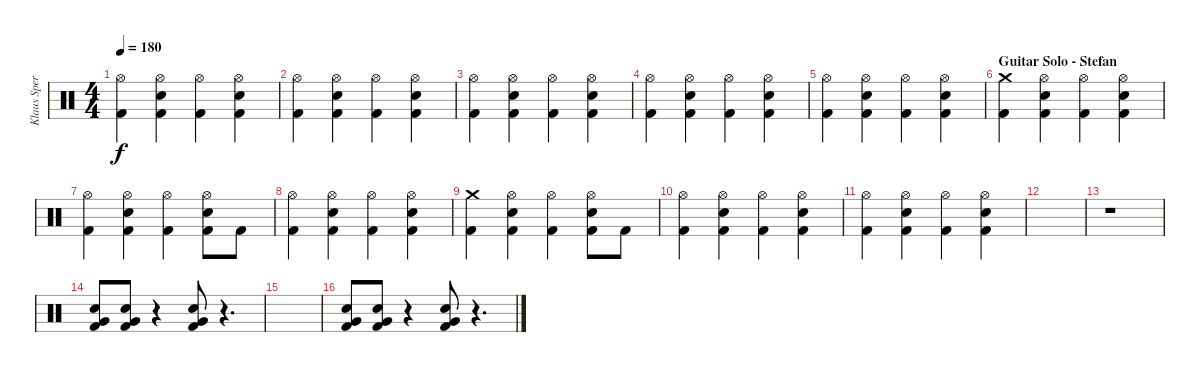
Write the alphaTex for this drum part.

\track ("Klaus Sperling Drums" "Klaus Sper") {instrument percussion}
\staff {score}
\articulation defaults
\ts (4 4)
\tempo 180
\clef neutral
\ks c
("Hi-Hat (open)" "Kick (hit) 2").4{dy f} ("Hi-Hat (open)" "Electric Snare (hit)" "Kick (hit) 2").4 ("Hi-Hat (open)" "Kick (hit) 2").4 ("Hi-Hat (open)" "Electric Snare (hit)" "Kick (hit) 2").4 |
("Hi-Hat (open)" "Kick (hit) 2").4 ("Hi-Hat (open)" "Electric Snare (hit)" "Kick (hit) 2").4 ("Hi-Hat (open)" "Kick (hit) 2").4 ("Hi-Hat (open)" "Electric Snare (hit)" "Kick (hit) 2").4 |
("Hi-Hat (open)" "Kick (hit) 2").4 ("Hi-Hat (open)" "Electric Snare (hit)" "Kick (hit) 2").4 ("Hi-Hat (open)" "Kick (hit) 2").4 ("Hi-Hat (open)" "Electric Snare (hit)" "Kick (hit) 2").4 |
("Hi-Hat (open)" "Kick (hit) 2").4 ("Hi-Hat (open)" "Electric Snare (hit)" "Kick (hit) 2").4 ("Hi-Hat (open)" "Kick (hit) 2").4 ("Hi-Hat (open)" "Electric Snare (hit)" "Kick (hit) 2").4 |
("Hi-Hat (open)" "Kick (hit) 2").4 ("Hi-Hat (open)" "Electric Snare (hit)" "Kick (hit) 2").4 ("Hi-Hat (open)" "Kick (hit) 2").4 ("Hi-Hat (open)" "Electric Snare (hit)" "Kick (hit) 2").4 |
\section ("" "Guitar Solo - Stefan")
("Crash medium (hit)" "Kick (hit) 2").4 ("Hi-Hat (open)" "Electric Snare (hit)" "Kick (hit) 2").4 ("Hi-Hat (open)" "Kick (hit) 2").4 ("Hi-Hat (open)" "Electric Snare (hit)" "Kick (hit) 2").4 |
("Hi-Hat (open)" "Kick (hit) 2").4 ("Hi-Hat (open)" "Electric Snare (hit)" "Kick (hit) 2").4 ("Hi-Hat (open)" "Kick (hit) 2").4 ("Hi-Hat (open)" "Electric Snare (hit)" "Kick (hit) 2").8 "Kick (hit) 2".8 |
("Hi-Hat (open)" "Kick (hit) 2").4 ("Hi-Hat (open)" "Electric Snare (hit)" "Kick (hit) 2").4 ("Hi-Hat (open)" "Kick (hit) 2").4 ("Hi-Hat (open)" "Electric Snare (hit)" "Kick (hit) 2").4 |
("Crash medium (hit)" "Kick (hit) 2").4 ("Hi-Hat (open)" "Electric Snare (hit)" "Kick (hit) 2").4 ("Hi-Hat (open)" "Kick (hit) 2").4 ("Hi-Hat (open)" "Electric Snare (hit)" "Kick (hit) 2").8 "Kick (hit) 2".8 |
("Hi-Hat (open)" "Kick (hit) 2").4 ("Hi-Hat (open)" "Electric Snare (hit)" "Kick (hit) 2").4 ("Hi-Hat (open)" "Kick (hit) 2").4 ("Hi-Hat (open)" "Electric Snare (hit)" "Kick (hit) 2").4 |
("Hi-Hat (open)" "Kick (hit) 2").4 ("Hi-Hat (open)" "Electric Snare (hit)" "Kick (hit) 2").4 ("Hi-Hat (open)" "Kick (hit) 2").4 ("Hi-Hat (open)" "Electric Snare (hit)" "Kick (hit) 2").4 |
|
r.1 |
("Very Low Tom (hit)" "Electric Snare (hit)" "Kick (hit) 2").8 ("Very Low Tom (hit)" "Electric Snare (hit)" "Kick (hit) 2").8 r.4 ("Very Low Tom (hit)" "Electric Snare (hit)" "Kick (hit) 2").8 r.4{d} |
|
("Very Low Tom (hit)" "Electric Snare (hit)" "Kick (hit) 2").8 ("Very Low Tom (hit)" "Electric Snare (hit)" "Kick (hit) 2").8 r.4 ("Very Low Tom (hit)" "Electric Snare (hit)" "Kick (hit) 2").8 r.4{d}
